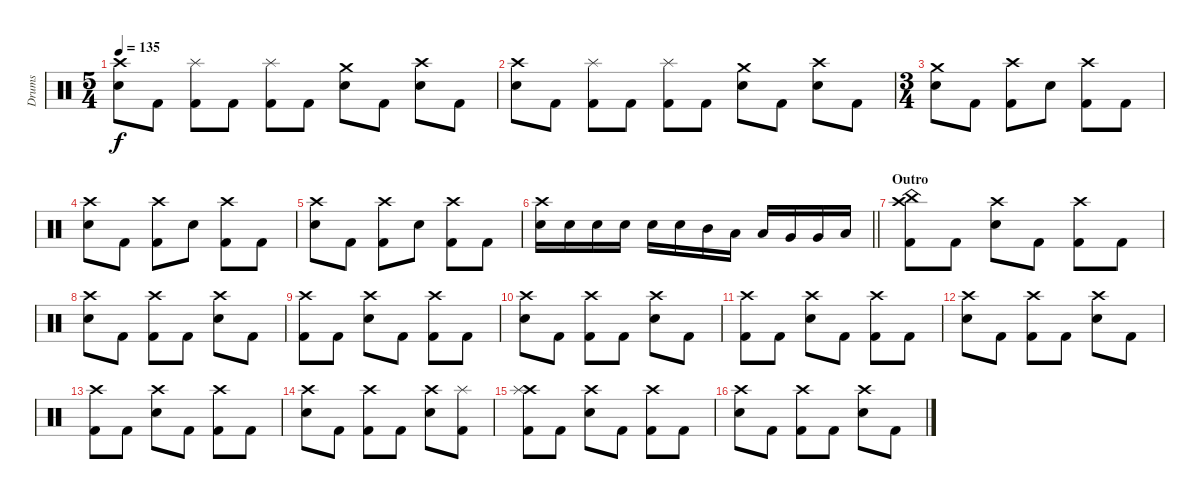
\track ("Drums" "Drums") {instrument percussion}
\staff {score}
\articulation defaults
\ts (5 4)
\tempo 135
\clef neutral
\ks c
("Crash high (hit)" "Snare (hit) 2").8{dy f} "Kick (hit) 2".8 ("Splash (hit)" "Kick (hit) 2").8 "Kick (hit) 2".8 ("Splash (hit)" "Kick (hit) 2").8 "Kick (hit) 2".8 ("Crash medium (hit)" "Snare (hit) 2").8 "Kick (hit) 2".8 ("Crash high (hit)" "Snare (hit) 2").8 "Kick (hit) 2".8 |
("Crash high (hit)" "Snare (hit) 2").8 "Kick (hit) 2".8 ("Splash (hit)" "Kick (hit) 2").8 "Kick (hit) 2".8 ("Splash (hit)" "Kick (hit) 2").8 "Kick (hit) 2".8 ("Crash medium (hit)" "Snare (hit) 2").8 "Kick (hit) 2".8 ("Crash high (hit)" "Snare (hit) 2").8 "Kick (hit) 2".8 |
\ts (3 4)
("Crash medium (hit)" "Snare (hit) 2").8 "Kick (hit) 2".8 ("Crash high (hit)" "Kick (hit) 2").8 "Snare (hit) 2".8 ("Crash high (hit)" "Kick (hit) 2").8 "Kick (hit) 2".8 |
("Crash high (hit)" "Snare (hit) 2").8 "Kick (hit) 2".8 ("Crash high (hit)" "Kick (hit) 2").8 "Snare (hit) 2".8 ("Crash high (hit)" "Kick (hit) 2").8 "Kick (hit) 2".8 |
("Crash high (hit)" "Snare (hit) 2").8 "Kick (hit) 2".8 ("Crash high (hit)" "Kick (hit) 2").8 "Snare (hit) 2".8 ("Crash high (hit)" "Kick (hit) 2").8 "Kick (hit) 2".8 |
\barLineRight lightlight
("Crash high (hit)" "Snare (hit) 2").16 "Snare (hit) 2".16 "Snare (hit) 2".16 "Snare (hit) 2".16 "Snare (hit) 2".16 "Snare (hit) 2".16 "Mid Tom (hit)".16 "Low Tom (hit)".16 "Low Tom (hit)".16 "Very Low Tom (hit)".16 "Very Low Tom (hit)".16 "Low Floor Tom (hit)".16 |
\section ("" "Outro")
("Crash high (hit)" "China (hit)" "Kick (hit) 2").8 "Kick (hit) 2".8 ("Crash high (hit)" "Snare (hit) 2").8 "Kick (hit) 2".8 ("Crash high (hit)" "Kick (hit) 2").8 "Kick (hit) 2".8 |
("Crash high (hit)" "Snare (hit) 2").8 "Kick (hit) 2".8 ("Crash high (hit)" "Kick (hit) 2").8 "Kick (hit) 2".8 ("Crash high (hit)" "Snare (hit) 2").8 "Kick (hit) 2".8 |
("Crash high (hit)" "Kick (hit) 2").8 "Kick (hit) 2".8 ("Crash high (hit)" "Snare (hit) 2").8 "Kick (hit) 2".8 ("Crash high (hit)" "Kick (hit) 2").8 "Kick (hit) 2".8 |
("Crash high (hit)" "Snare (hit) 2").8 "Kick (hit) 2".8 ("Crash high (hit)" "Kick (hit) 2").8 "Kick (hit) 2".8 ("Crash high (hit)" "Snare (hit) 2").8 "Kick (hit) 2".8 |
("Crash high (hit)" "Kick (hit) 2").8 "Kick (hit) 2".8 ("Crash high (hit)" "Snare (hit) 2").8 "Kick (hit) 2".8 ("Crash high (hit)" "Kick (hit) 2").8 "Kick (hit) 2".8 |
("Crash high (hit)" "Snare (hit) 2").8 "Kick (hit) 2".8 ("Crash high (hit)" "Kick (hit) 2").8 "Kick (hit) 2".8 ("Crash high (hit)" "Snare (hit) 2").8 "Kick (hit) 2".8 |
("Crash high (hit)" "Kick (hit) 2").8 "Kick (hit) 2".8 ("Crash high (hit)" "Snare (hit) 2").8 "Kick (hit) 2".8 ("Crash high (hit)" "Kick (hit) 2").8 "Kick (hit) 2".8 |
("Crash high (hit)" "Snare (hit) 2").8 "Kick (hit) 2".8 ("Crash high (hit)" "Kick (hit) 2").8 "Kick (hit) 2".8 ("Crash high (hit)" "Snare (hit) 2").8 ("Splash (hit)" "Kick (hit) 2").8 |
("Crash high (hit)" "Splash (hit)" "Kick (hit) 2").8 "Kick (hit) 2".8 ("Crash high (hit)" "Snare (hit) 2").8 "Kick (hit) 2".8 ("Crash high (hit)" "Kick (hit) 2").8 "Kick (hit) 2".8 |
("Crash high (hit)" "Snare (hit) 2").8 "Kick (hit) 2".8 ("Crash high (hit)" "Kick (hit) 2").8 "Kick (hit) 2".8 ("Crash high (hit)" "Snare (hit) 2").8 "Kick (hit) 2".8
